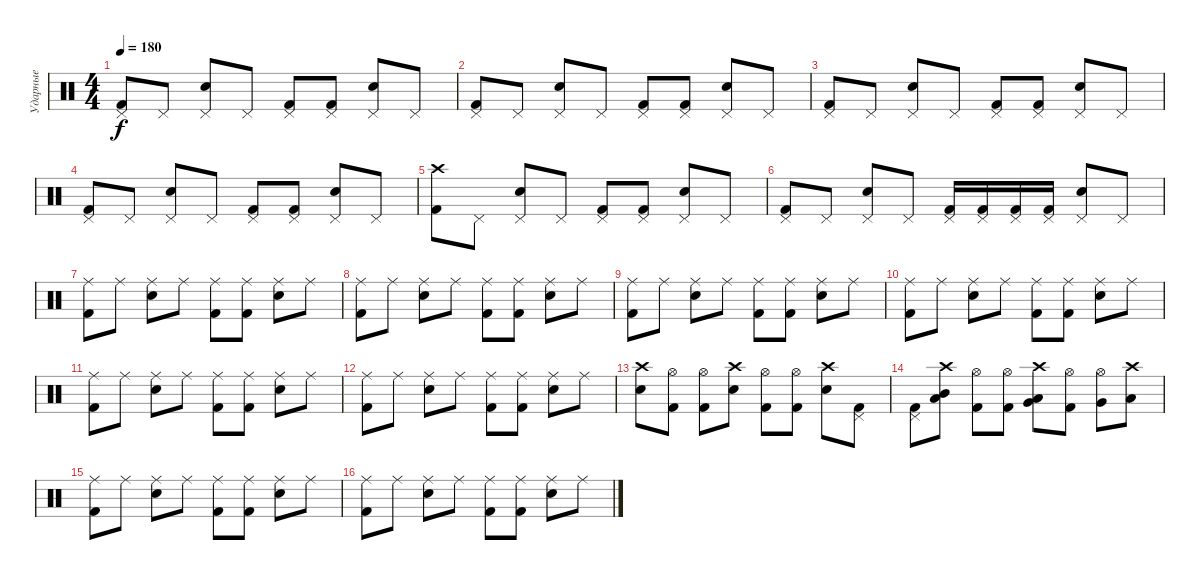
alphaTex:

\track ("Ударные" "Ударные") {instrument percussion}
\staff {score}
\articulation defaults
\ts (4 4)
\tempo 180
\clef neutral
\ks c
("Kick (hit) 2" "Pedal Hi-Hat (hit)").8{dy f} "Pedal Hi-Hat (hit)".8 ("Electric Snare (hit)" "Pedal Hi-Hat (hit)").8 "Pedal Hi-Hat (hit)".8 ("Pedal Hi-Hat (hit)" "Kick (hit) 2").8 ("Pedal Hi-Hat (hit)" "Kick (hit) 2").8 ("Electric Snare (hit)" "Pedal Hi-Hat (hit)").8 "Pedal Hi-Hat (hit)".8 |
("Kick (hit) 2" "Pedal Hi-Hat (hit)").8 "Pedal Hi-Hat (hit)".8 ("Electric Snare (hit)" "Pedal Hi-Hat (hit)").8 "Pedal Hi-Hat (hit)".8 ("Pedal Hi-Hat (hit)" "Kick (hit) 2").8 ("Pedal Hi-Hat (hit)" "Kick (hit) 2").8 ("Electric Snare (hit)" "Pedal Hi-Hat (hit)").8 "Pedal Hi-Hat (hit)".8 |
("Kick (hit) 2" "Pedal Hi-Hat (hit)").8 "Pedal Hi-Hat (hit)".8 ("Electric Snare (hit)" "Pedal Hi-Hat (hit)").8 "Pedal Hi-Hat (hit)".8 ("Pedal Hi-Hat (hit)" "Kick (hit) 2").8 ("Pedal Hi-Hat (hit)" "Kick (hit) 2").8 ("Electric Snare (hit)" "Pedal Hi-Hat (hit)").8 "Pedal Hi-Hat (hit)".8 |
("Kick (hit) 2" "Pedal Hi-Hat (hit)").8 "Pedal Hi-Hat (hit)".8 ("Electric Snare (hit)" "Pedal Hi-Hat (hit)").8 "Pedal Hi-Hat (hit)".8 ("Pedal Hi-Hat (hit)" "Kick (hit) 2").8 ("Pedal Hi-Hat (hit)" "Kick (hit) 2").8 ("Electric Snare (hit)" "Pedal Hi-Hat (hit)").8 "Pedal Hi-Hat (hit)".8 |
("Kick (hit) 2" "Crash high (hit)").8 "Pedal Hi-Hat (hit)".8 ("Electric Snare (hit)" "Pedal Hi-Hat (hit)").8 "Pedal Hi-Hat (hit)".8 ("Pedal Hi-Hat (hit)" "Kick (hit) 2").8 ("Pedal Hi-Hat (hit)" "Kick (hit) 2").8 ("Electric Snare (hit)" "Pedal Hi-Hat (hit)").8 "Pedal Hi-Hat (hit)".8 |
("Kick (hit) 2" "Pedal Hi-Hat (hit)").8 "Pedal Hi-Hat (hit)".8 ("Electric Snare (hit)" "Pedal Hi-Hat (hit)").8 "Pedal Hi-Hat (hit)".8 ("Pedal Hi-Hat (hit)" "Kick (hit) 2").16 ("Pedal Hi-Hat (hit)" "Kick (hit) 2").16 ("Kick (hit) 2" "Pedal Hi-Hat (hit)").16 ("Pedal Hi-Hat (hit)" "Kick (hit) 2").16 ("Electric Snare (hit)" "Pedal Hi-Hat (hit)").8 "Pedal Hi-Hat (hit)".8 |
("Kick (hit) 2" "Ride (middle)").8 "Ride (middle)".8 ("Electric Snare (hit)" "Ride (middle)").8 "Ride (middle)".8 ("Ride (middle)" "Kick (hit) 2").8 ("Ride (middle)" "Kick (hit) 2").8 ("Electric Snare (hit)" "Ride (middle)").8 "Ride (middle)".8 |
("Kick (hit) 2" "Ride (middle)").8 "Ride (middle)".8 ("Electric Snare (hit)" "Ride (middle)").8 "Ride (middle)".8 ("Ride (middle)" "Kick (hit) 2").8 ("Ride (middle)" "Kick (hit) 2").8 ("Electric Snare (hit)" "Ride (middle)").8 "Ride (middle)".8 |
("Kick (hit) 2" "Ride (middle)").8 "Ride (middle)".8 ("Electric Snare (hit)" "Ride (middle)").8 "Ride (middle)".8 ("Ride (middle)" "Kick (hit) 2").8 ("Ride (middle)" "Kick (hit) 2").8 ("Electric Snare (hit)" "Ride (middle)").8 "Ride (middle)".8 |
("Kick (hit) 2" "Ride (middle)").8 "Ride (middle)".8 ("Electric Snare (hit)" "Ride (middle)").8 "Ride (middle)".8 ("Ride (middle)" "Kick (hit) 2").8 ("Ride (middle)" "Kick (hit) 2").8 ("Electric Snare (hit)" "Ride (middle)").8 "Ride (middle)".8 |
("Kick (hit) 2" "Ride (middle)").8 "Ride (middle)".8 ("Electric Snare (hit)" "Ride (middle)").8 "Ride (middle)".8 ("Ride (middle)" "Kick (hit) 2").8 ("Ride (middle)" "Kick (hit) 2").8 ("Electric Snare (hit)" "Ride (middle)").8 "Ride (middle)".8 |
("Kick (hit) 2" "Ride (middle)").8 "Ride (middle)".8 ("Electric Snare (hit)" "Ride (middle)").8 "Ride (middle)".8 ("Ride (middle)" "Kick (hit) 2").8 ("Ride (middle)" "Kick (hit) 2").8 ("Electric Snare (hit)" "Ride (middle)").8 "Ride (middle)".8 |
("Electric Snare (hit)" "Crash high (hit)").8 ("Kick (hit) 2" "Hi-Hat (open)").8 ("Kick (hit) 2" "Hi-Hat (open)").8 ("Electric Snare (hit)" "Crash high (hit)").8 ("Kick (hit) 2" "Hi-Hat (open)").8 ("Kick (hit) 2" "Hi-Hat (open)").8 ("Electric Snare (hit)" "Crash high (hit)").8 ("Pedal Hi-Hat (hit)" "Kick (hit) 2").8 |
("Kick (hit) 2" "Pedal Hi-Hat (hit)").8 ("Low Tom (hit)" "Crash high (hit)" "Mid Tom (hit)").8 ("Kick (hit) 2" "Hi-Hat (open)").8 ("Kick (hit) 2" "Hi-Hat (open)").8 ("Very Low Tom (hit)" "Crash high (hit)" "Low Tom (hit)").8 ("Kick (hit) 2" "Hi-Hat (open)").8 ("Very Low Tom (hit)" "Hi-Hat (open)").8 ("Crash high (hit)" "Low Floor Tom (hit)").8 |
("Kick (hit) 2" "Ride (middle)").8 "Ride (middle)".8 ("Electric Snare (hit)" "Ride (middle)").8 "Ride (middle)".8 ("Ride (middle)" "Kick (hit) 2").8 ("Ride (middle)" "Kick (hit) 2").8 ("Electric Snare (hit)" "Ride (middle)").8 "Ride (middle)".8 |
("Kick (hit) 2" "Ride (middle)").8 "Ride (middle)".8 ("Electric Snare (hit)" "Ride (middle)").8 "Ride (middle)".8 ("Ride (middle)" "Kick (hit) 2").8 ("Ride (middle)" "Kick (hit) 2").8 ("Electric Snare (hit)" "Ride (middle)").8 "Ride (middle)".8
